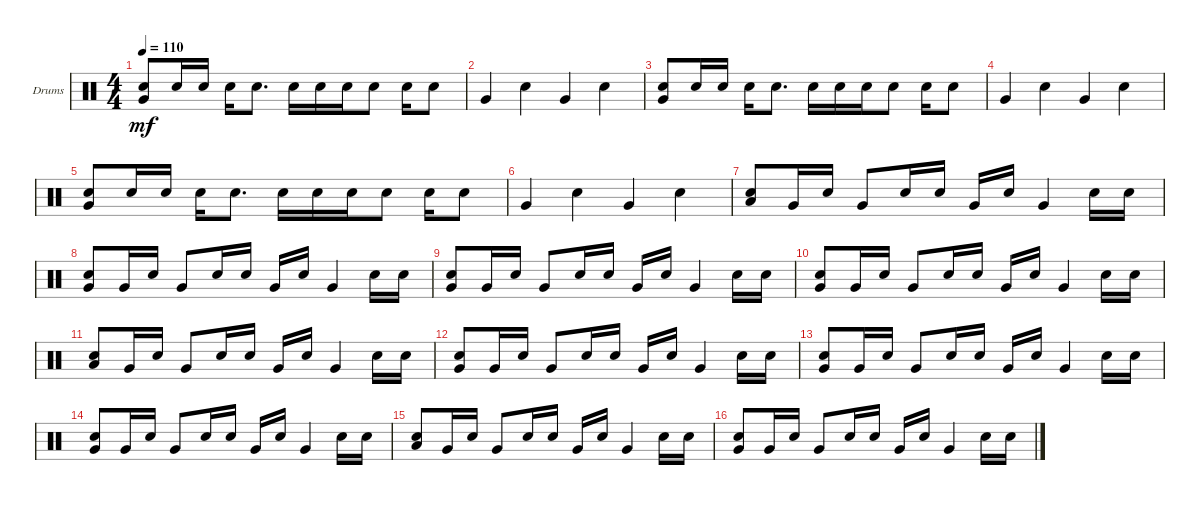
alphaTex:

\defaultSystemsLayout 4
\bracketExtendMode groupsimilarinstruments
\firstSystemTrackNameOrientation horizontal
\otherSystemsTrackNameOrientation horizontal
\track ("Drumkit" "Drums") {instrument percussion}
\staff {score}
\articulation defaults
\ts (4 4)
\tempo 110
\clef neutral
\ks c
("Very Low Tom (hit)" "Snare (hit) 2").8{dy mf} "Snare (hit) 2".16 "Snare (hit) 2".16 "Snare (hit) 2".16 "Snare (hit) 2".8{d} "Snare (hit) 2".16 "Snare (hit) 2".16 "Snare (hit) 2".16 "Snare (hit) 2".8 "Snare (hit) 2".16 "Snare (hit) 2".8 |
"Very Low Tom (hit)".4 "Snare (hit) 2".4 "Very Low Tom (hit)".4 "Snare (hit) 2".4 |
("Very Low Tom (hit)" "Snare (hit) 2").8 "Snare (hit) 2".16 "Snare (hit) 2".16 "Snare (hit) 2".16 "Snare (hit) 2".8{d} "Snare (hit) 2".16 "Snare (hit) 2".16 "Snare (hit) 2".16 "Snare (hit) 2".8 "Snare (hit) 2".16 "Snare (hit) 2".8 |
"Very Low Tom (hit)".4 "Snare (hit) 2".4 "Very Low Tom (hit)".4 "Snare (hit) 2".4 |
("Very Low Tom (hit)" "Snare (hit) 2").8 "Snare (hit) 2".16 "Snare (hit) 2".16 "Snare (hit) 2".16 "Snare (hit) 2".8{d} "Snare (hit) 2".16 "Snare (hit) 2".16 "Snare (hit) 2".16 "Snare (hit) 2".8 "Snare (hit) 2".16 "Snare (hit) 2".8 |
"Very Low Tom (hit)".4 "Snare (hit) 2".4 "Very Low Tom (hit)".4 "Snare (hit) 2".4 |
("Snare (hit) 2" "Low Tom (hit)").8 "Very Low Tom (hit)".16 "Snare (hit) 2".16 "Very Low Tom (hit)".8 "Snare (hit) 2".16 "Snare (hit) 2".16 "Very Low Tom (hit)".16 "Snare (hit) 2".16 "Very Low Tom (hit)".4 "Snare (hit) 2".16 "Snare (hit) 2".16 |
("Snare (hit) 2" "Very Low Tom (hit)").8 "Very Low Tom (hit)".16 "Snare (hit) 2".16 "Very Low Tom (hit)".8 "Snare (hit) 2".16 "Snare (hit) 2".16 "Very Low Tom (hit)".16 "Snare (hit) 2".16 "Very Low Tom (hit)".4 "Snare (hit) 2".16 "Snare (hit) 2".16 |
("Snare (hit) 2" "Very Low Tom (hit)").8 "Very Low Tom (hit)".16 "Snare (hit) 2".16 "Very Low Tom (hit)".8 "Snare (hit) 2".16 "Snare (hit) 2".16 "Very Low Tom (hit)".16 "Snare (hit) 2".16 "Very Low Tom (hit)".4 "Snare (hit) 2".16 "Snare (hit) 2".16 |
("Snare (hit) 2" "Very Low Tom (hit)").8 "Very Low Tom (hit)".16 "Snare (hit) 2".16 "Very Low Tom (hit)".8 "Snare (hit) 2".16 "Snare (hit) 2".16 "Very Low Tom (hit)".16 "Snare (hit) 2".16 "Very Low Tom (hit)".4 "Snare (hit) 2".16 "Snare (hit) 2".16 |
("Snare (hit) 2" "Low Tom (hit)").8 "Very Low Tom (hit)".16 "Snare (hit) 2".16 "Very Low Tom (hit)".8 "Snare (hit) 2".16 "Snare (hit) 2".16 "Very Low Tom (hit)".16 "Snare (hit) 2".16 "Very Low Tom (hit)".4 "Snare (hit) 2".16 "Snare (hit) 2".16 |
("Snare (hit) 2" "Very Low Tom (hit)").8 "Very Low Tom (hit)".16 "Snare (hit) 2".16 "Very Low Tom (hit)".8 "Snare (hit) 2".16 "Snare (hit) 2".16 "Very Low Tom (hit)".16 "Snare (hit) 2".16 "Very Low Tom (hit)".4 "Snare (hit) 2".16 "Snare (hit) 2".16 |
("Snare (hit) 2" "Very Low Tom (hit)").8 "Very Low Tom (hit)".16 "Snare (hit) 2".16 "Very Low Tom (hit)".8 "Snare (hit) 2".16 "Snare (hit) 2".16 "Very Low Tom (hit)".16 "Snare (hit) 2".16 "Very Low Tom (hit)".4 "Snare (hit) 2".16 "Snare (hit) 2".16 |
("Snare (hit) 2" "Very Low Tom (hit)").8 "Very Low Tom (hit)".16 "Snare (hit) 2".16 "Very Low Tom (hit)".8 "Snare (hit) 2".16 "Snare (hit) 2".16 "Very Low Tom (hit)".16 "Snare (hit) 2".16 "Very Low Tom (hit)".4 "Snare (hit) 2".16 "Snare (hit) 2".16 |
("Snare (hit) 2" "Low Tom (hit)").8 "Very Low Tom (hit)".16 "Snare (hit) 2".16 "Very Low Tom (hit)".8 "Snare (hit) 2".16 "Snare (hit) 2".16 "Very Low Tom (hit)".16 "Snare (hit) 2".16 "Very Low Tom (hit)".4 "Snare (hit) 2".16 "Snare (hit) 2".16 |
("Snare (hit) 2" "Very Low Tom (hit)").8 "Very Low Tom (hit)".16 "Snare (hit) 2".16 "Very Low Tom (hit)".8 "Snare (hit) 2".16 "Snare (hit) 2".16 "Very Low Tom (hit)".16 "Snare (hit) 2".16 "Very Low Tom (hit)".4 "Snare (hit) 2".16 "Snare (hit) 2".16
